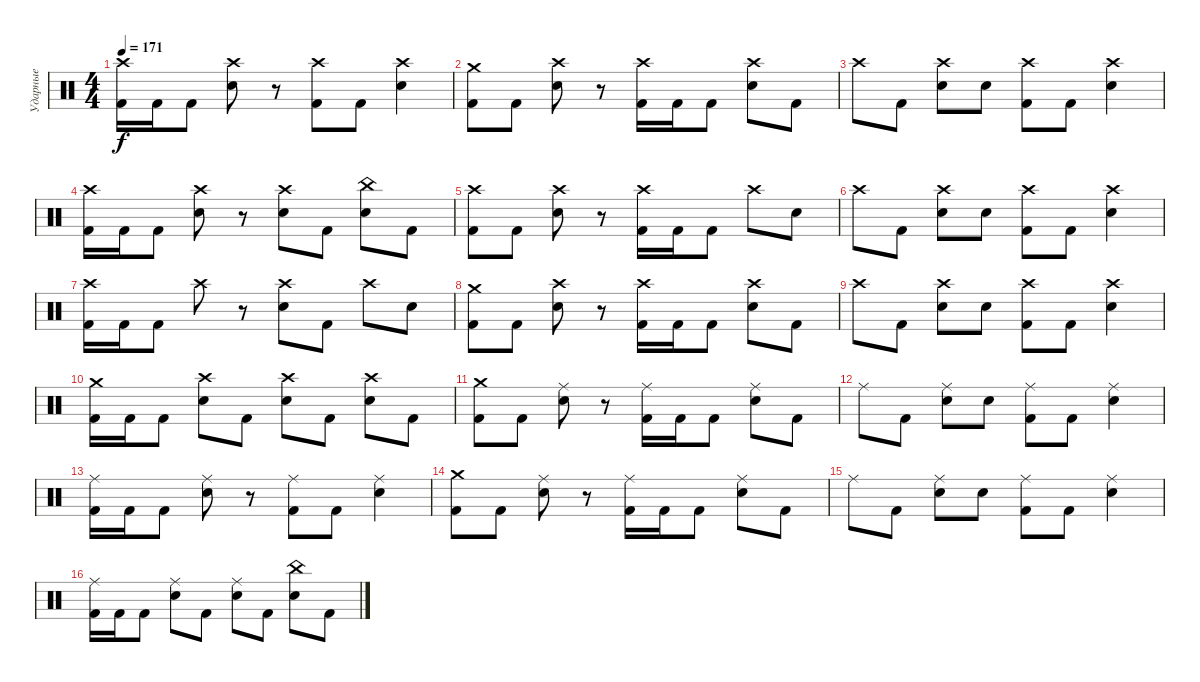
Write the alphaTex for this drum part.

\track ("Ударные" "Ударные") {instrument percussion}
\staff {score}
\articulation defaults
\ts (4 4)
\tempo 171
\clef neutral
\ks c
("Crash high (hit)" "Kick (hit) 2").16{dy f} "Kick (hit) 2".16 "Kick (hit) 2".8 ("Crash high (hit)" "Electric Snare (hit)").8 r.8 ("Crash high (hit)" "Kick (hit) 2").8 "Kick (hit) 2".8 ("Crash high (hit)" "Electric Snare (hit)").4 |
("Crash medium (hit)" "Kick (hit) 2").8 "Kick (hit) 2".8 ("Crash high (hit)" "Electric Snare (hit)").8 r.8 ("Crash high (hit)" "Kick (hit) 2").16 "Kick (hit) 2".16 "Kick (hit) 2".8 ("Crash high (hit)" "Electric Snare (hit)").8 "Kick (hit) 2".8 |
"Crash high (hit)".8 "Kick (hit) 2".8 ("Crash high (hit)" "Electric Snare (hit)").8 "Electric Snare (hit)".8 ("Crash high (hit)" "Kick (hit) 2").8 "Kick (hit) 2".8 ("Crash high (hit)" "Electric Snare (hit)").4 |
("Crash high (hit)" "Kick (hit) 2").16 "Kick (hit) 2".16 "Kick (hit) 2".8 ("Crash high (hit)" "Electric Snare (hit)").8 r.8 ("Crash high (hit)" "Electric Snare (hit)").8 "Kick (hit) 2".8 ("China (hit)" "Electric Snare (hit)").8 "Kick (hit) 2".8 |
("Crash high (hit)" "Kick (hit) 2").8 "Kick (hit) 2".8 ("Crash high (hit)" "Electric Snare (hit)").8 r.8 ("Crash high (hit)" "Kick (hit) 2").16 "Kick (hit) 2".16 "Kick (hit) 2".8 "Crash high (hit)".8 "Electric Snare (hit)".8 |
"Crash high (hit)".8 "Kick (hit) 2".8 ("Crash high (hit)" "Electric Snare (hit)").8 "Electric Snare (hit)".8 ("Crash high (hit)" "Kick (hit) 2").8 "Kick (hit) 2".8 ("Crash high (hit)" "Electric Snare (hit)").4 |
("Crash high (hit)" "Kick (hit) 2").16 "Kick (hit) 2".16 "Kick (hit) 2".8 "Crash high (hit)".8 r.8 ("Crash high (hit)" "Electric Snare (hit)").8 "Kick (hit) 2".8 "Crash high (hit)".8 "Electric Snare (hit)".8 |
("Crash medium (hit)" "Kick (hit) 2").8 "Kick (hit) 2".8 ("Crash high (hit)" "Electric Snare (hit)").8 r.8 ("Crash high (hit)" "Kick (hit) 2").16 "Kick (hit) 2".16 "Kick (hit) 2".8 ("Crash high (hit)" "Electric Snare (hit)").8 "Kick (hit) 2".8 |
"Crash high (hit)".8 "Kick (hit) 2".8 ("Crash high (hit)" "Electric Snare (hit)").8 "Electric Snare (hit)".8 ("Crash high (hit)" "Kick (hit) 2").8 "Kick (hit) 2".8 ("Crash high (hit)" "Electric Snare (hit)").4 |
("Crash medium (hit)" "Kick (hit) 2").16 "Kick (hit) 2".16 "Kick (hit) 2".8 ("Crash high (hit)" "Electric Snare (hit)").8 "Kick (hit) 2".8 ("Crash high (hit)" "Electric Snare (hit)").8 "Kick (hit) 2".8 ("Crash high (hit)" "Electric Snare (hit)").8 "Kick (hit) 2".8 |
("Crash medium (hit)" "Kick (hit) 2").8 "Kick (hit) 2".8 ("Ride (middle)" "Electric Snare (hit)").8 r.8 ("Ride (middle)" "Kick (hit) 2").16 "Kick (hit) 2".16 "Kick (hit) 2".8 ("Ride (middle)" "Electric Snare (hit)").8 "Kick (hit) 2".8 |
"Ride (middle)".8 "Kick (hit) 2".8 ("Ride (middle)" "Electric Snare (hit)").8 "Electric Snare (hit)".8 ("Ride (middle)" "Kick (hit) 2").8 "Kick (hit) 2".8 ("Ride (middle)" "Electric Snare (hit)").4 |
("Ride (middle)" "Kick (hit) 2").16 "Kick (hit) 2".16 "Kick (hit) 2".8 ("Ride (middle)" "Electric Snare (hit)").8 r.8 ("Ride (middle)" "Kick (hit) 2").8 "Kick (hit) 2".8 ("Ride (middle)" "Electric Snare (hit)").4 |
("Crash medium (hit)" "Kick (hit) 2").8 "Kick (hit) 2".8 ("Ride (middle)" "Electric Snare (hit)").8 r.8 ("Ride (middle)" "Kick (hit) 2").16 "Kick (hit) 2".16 "Kick (hit) 2".8 ("Ride (middle)" "Electric Snare (hit)").8 "Kick (hit) 2".8 |
"Ride (middle)".8 "Kick (hit) 2".8 ("Ride (middle)" "Electric Snare (hit)").8 "Electric Snare (hit)".8 ("Ride (middle)" "Kick (hit) 2").8 "Kick (hit) 2".8 ("Ride (middle)" "Electric Snare (hit)").4 |
("Ride (middle)" "Kick (hit) 2").16 "Kick (hit) 2".16 "Kick (hit) 2".8 ("Ride (middle)" "Electric Snare (hit)").8 "Kick (hit) 2".8 ("Ride (middle)" "Electric Snare (hit)").8 "Kick (hit) 2".8 ("China (hit)" "Electric Snare (hit)").8 "Kick (hit) 2".8
